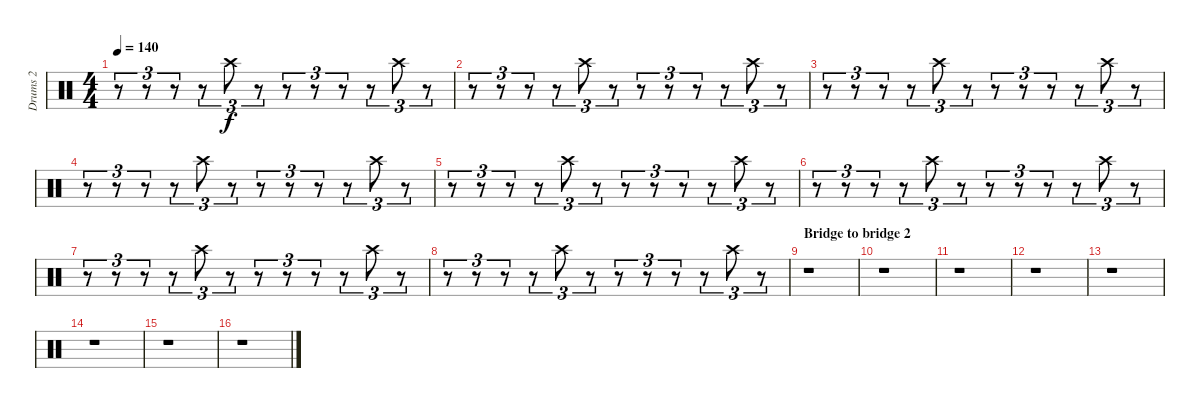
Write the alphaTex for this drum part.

\track ("Drums 2" "Drums 2") {instrument percussion}
\staff {score}
\articulation defaults
\ts (4 4)
\tempo 140
\clef neutral
\ks c
r.8{tu (3 2) dy f} r.8{tu (3 2)} r.8{tu (3 2)} r.8{tu (3 2)} "Crash high (hit)".8{tu (3 2)} r.8{tu (3 2)} r.8{tu (3 2)} r.8{tu (3 2)} r.8{tu (3 2)} r.8{tu (3 2)} "Crash high (hit)".8{tu (3 2)} r.8{tu (3 2)} |
r.8{tu (3 2)} r.8{tu (3 2)} r.8{tu (3 2)} r.8{tu (3 2)} "Crash high (hit)".8{tu (3 2)} r.8{tu (3 2)} r.8{tu (3 2)} r.8{tu (3 2)} r.8{tu (3 2)} r.8{tu (3 2)} "Crash high (hit)".8{tu (3 2)} r.8{tu (3 2)} |
r.8{tu (3 2)} r.8{tu (3 2)} r.8{tu (3 2)} r.8{tu (3 2)} "Crash high (hit)".8{tu (3 2)} r.8{tu (3 2)} r.8{tu (3 2)} r.8{tu (3 2)} r.8{tu (3 2)} r.8{tu (3 2)} "Crash high (hit)".8{tu (3 2)} r.8{tu (3 2)} |
r.8{tu (3 2)} r.8{tu (3 2)} r.8{tu (3 2)} r.8{tu (3 2)} "Crash high (hit)".8{tu (3 2)} r.8{tu (3 2)} r.8{tu (3 2)} r.8{tu (3 2)} r.8{tu (3 2)} r.8{tu (3 2)} "Crash high (hit)".8{tu (3 2)} r.8{tu (3 2)} |
r.8{tu (3 2)} r.8{tu (3 2)} r.8{tu (3 2)} r.8{tu (3 2)} "Crash high (hit)".8{tu (3 2)} r.8{tu (3 2)} r.8{tu (3 2)} r.8{tu (3 2)} r.8{tu (3 2)} r.8{tu (3 2)} "Crash high (hit)".8{tu (3 2)} r.8{tu (3 2)} |
r.8{tu (3 2)} r.8{tu (3 2)} r.8{tu (3 2)} r.8{tu (3 2)} "Crash high (hit)".8{tu (3 2)} r.8{tu (3 2)} r.8{tu (3 2)} r.8{tu (3 2)} r.8{tu (3 2)} r.8{tu (3 2)} "Crash high (hit)".8{tu (3 2)} r.8{tu (3 2)} |
r.8{tu (3 2)} r.8{tu (3 2)} r.8{tu (3 2)} r.8{tu (3 2)} "Crash high (hit)".8{tu (3 2)} r.8{tu (3 2)} r.8{tu (3 2)} r.8{tu (3 2)} r.8{tu (3 2)} r.8{tu (3 2)} "Crash high (hit)".8{tu (3 2)} r.8{tu (3 2)} |
r.8{tu (3 2)} r.8{tu (3 2)} r.8{tu (3 2)} r.8{tu (3 2)} "Crash high (hit)".8{tu (3 2)} r.8{tu (3 2)} r.8{tu (3 2)} r.8{tu (3 2)} r.8{tu (3 2)} r.8{tu (3 2)} "Crash high (hit)".8{tu (3 2)} r.8{tu (3 2)} |
\section ("" "Bridge to bridge 2")
r.1 |
r.1 |
r.1 |
r.1 |
r.1 |
r.1 |
r.1 |
r.1
